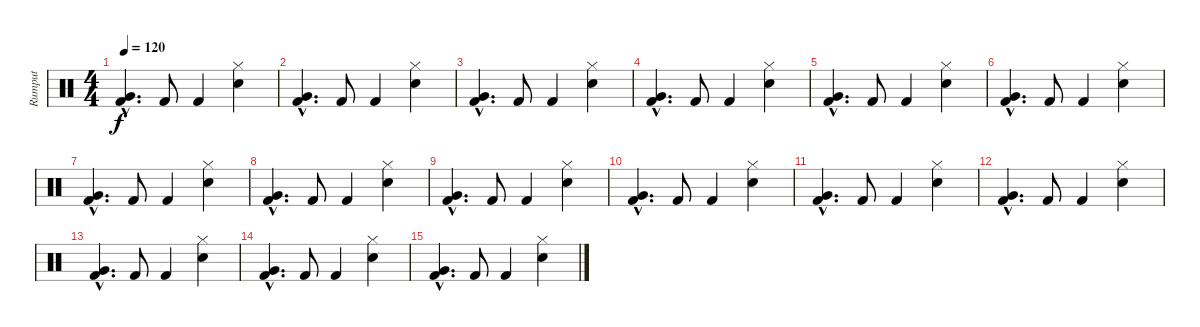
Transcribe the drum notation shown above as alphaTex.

\track ("Rumput" "Rumput") {instrument percussion}
\staff {score}
\articulation defaults
\ts (4 4)
\tempo 120
\clef neutral
\ks c
("Very Low Tom (hit)"{hac} "Kick (hit) 2"{hac}).4{d dy f} "Kick (hit) 2".8 "Kick (hit) 2".4 ("Hi-Hat (closed)" "Snare (hit) 2").4 |
("Very Low Tom (hit)"{hac} "Kick (hit) 2"{hac}).4{d} "Kick (hit) 2".8 "Kick (hit) 2".4 ("Hi-Hat (closed)" "Snare (hit) 2").4 |
("Very Low Tom (hit)"{hac} "Kick (hit) 2"{hac}).4{d} "Kick (hit) 2".8 "Kick (hit) 2".4 ("Hi-Hat (closed)" "Snare (hit) 2").4 |
("Very Low Tom (hit)"{hac} "Kick (hit) 2"{hac}).4{d} "Kick (hit) 2".8 "Kick (hit) 2".4 ("Hi-Hat (closed)" "Snare (hit) 2").4 |
("Very Low Tom (hit)"{hac} "Kick (hit) 2"{hac}).4{d} "Kick (hit) 2".8 "Kick (hit) 2".4 ("Hi-Hat (closed)" "Snare (hit) 2").4 |
("Very Low Tom (hit)"{hac} "Kick (hit) 2"{hac}).4{d} "Kick (hit) 2".8 "Kick (hit) 2".4 ("Hi-Hat (closed)" "Snare (hit) 2").4 |
("Very Low Tom (hit)"{hac} "Kick (hit) 2"{hac}).4{d} "Kick (hit) 2".8 "Kick (hit) 2".4 ("Hi-Hat (closed)" "Snare (hit) 2").4 |
("Very Low Tom (hit)"{hac} "Kick (hit) 2"{hac}).4{d} "Kick (hit) 2".8 "Kick (hit) 2".4 ("Hi-Hat (closed)" "Snare (hit) 2").4 |
("Very Low Tom (hit)"{hac} "Kick (hit) 2"{hac}).4{d} "Kick (hit) 2".8 "Kick (hit) 2".4 ("Hi-Hat (closed)" "Snare (hit) 2").4 |
("Very Low Tom (hit)"{hac} "Kick (hit) 2"{hac}).4{d} "Kick (hit) 2".8 "Kick (hit) 2".4 ("Hi-Hat (closed)" "Snare (hit) 2").4 |
("Very Low Tom (hit)"{hac} "Kick (hit) 2"{hac}).4{d} "Kick (hit) 2".8 "Kick (hit) 2".4 ("Hi-Hat (closed)" "Snare (hit) 2").4 |
("Very Low Tom (hit)"{hac} "Kick (hit) 2"{hac}).4{d} "Kick (hit) 2".8 "Kick (hit) 2".4 ("Hi-Hat (closed)" "Snare (hit) 2").4 |
("Very Low Tom (hit)"{hac} "Kick (hit) 2"{hac}).4{d} "Kick (hit) 2".8 "Kick (hit) 2".4 ("Hi-Hat (closed)" "Snare (hit) 2").4 |
("Very Low Tom (hit)"{hac} "Kick (hit) 2"{hac}).4{d} "Kick (hit) 2".8 "Kick (hit) 2".4 ("Hi-Hat (closed)" "Snare (hit) 2").4 |
("Very Low Tom (hit)"{hac} "Kick (hit) 2"{hac}).4{d} "Kick (hit) 2".8 "Kick (hit) 2".4 ("Hi-Hat (closed)" "Snare (hit) 2").4
